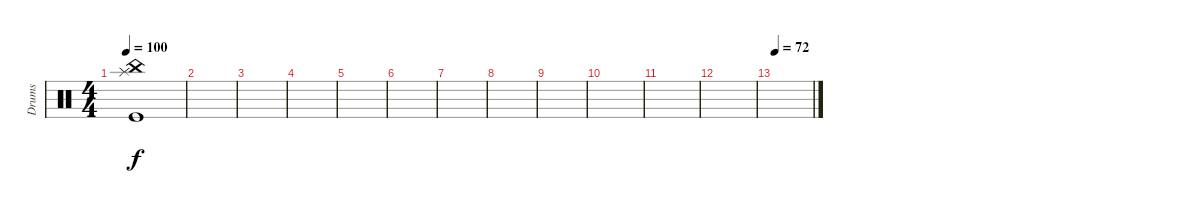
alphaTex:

\track ("Drums" "Drums") {instrument percussion}
\staff {score}
\articulation defaults
\ts (4 4)
\tempo 100
\clef neutral
\ks c
("Splash (hit)" "China (hit)" "Kick (hit)").1{dy f} |
|
|
|
|
|
|
|
|
|
|
|
\tempo 72
